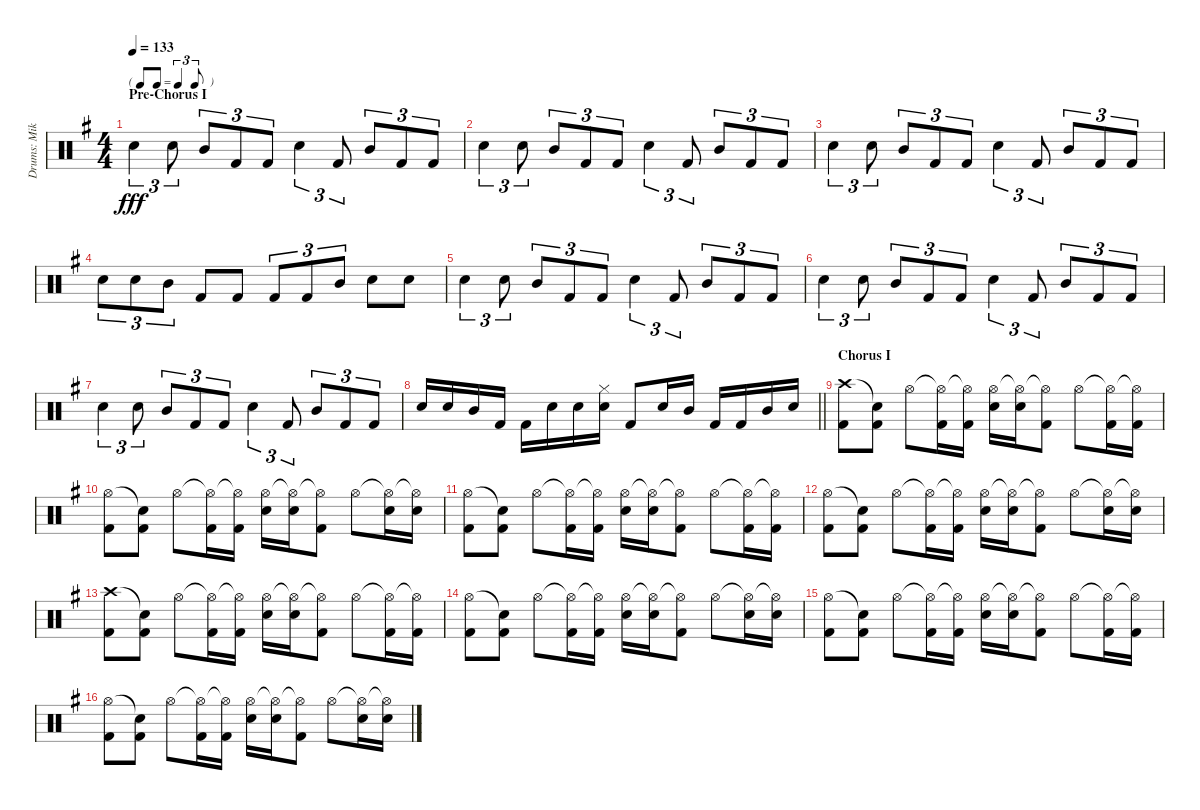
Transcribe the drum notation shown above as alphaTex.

\track ("Drums: Mike" "Drums: Mik") {instrument percussion}
\staff {score}
\articulation defaults
\ts (4 4)
\tf triplet8th
\section ("" "Pre-Chorus I")
\tempo 133
\clef neutral
\ks g "Electric Snare (hit)".4{tu (3 2) dy fff} "Electric Snare (hit)".8{tu (3 2)} "Mid Tom (hit)".8{tu (3 2)} "Kick (hit) 2".8{tu (3 2)} "Kick (hit) 2".8{tu (3 2)} "Electric Snare (hit)".4{tu (3 2)} "Kick (hit) 2".8{tu (3 2)} "Mid Tom (hit)".8{tu (3 2)} "Kick (hit) 2".8{tu (3 2)} "Kick (hit) 2".8{tu (3 2)}
|
"Electric Snare (hit)".4{tu (3 2)} "Electric Snare (hit)".8{tu (3 2)} "Mid Tom (hit)".8{tu (3 2)} "Kick (hit) 2".8{tu (3 2)} "Kick (hit) 2".8{tu (3 2)} "Electric Snare (hit)".4{tu (3 2)} "Kick (hit) 2".8{tu (3 2)} "Mid Tom (hit)".8{tu (3 2)} "Kick (hit) 2".8{tu (3 2)} "Kick (hit) 2".8{tu (3 2)} |
"Electric Snare (hit)".4{tu (3 2)} "Electric Snare (hit)".8{tu (3 2)} "Mid Tom (hit)".8{tu (3 2)} "Kick (hit) 2".8{tu (3 2)} "Kick (hit) 2".8{tu (3 2)} "Electric Snare (hit)".4{tu (3 2)} "Kick (hit) 2".8{tu (3 2)} "Mid Tom (hit)".8{tu (3 2)} "Kick (hit) 2".8{tu (3 2)} "Kick (hit) 2".8{tu (3 2)} |
"Electric Snare (hit)".8{tu (3 2)} "Electric Snare (hit)".8{tu (3 2)} "Mid Tom (hit)".8{tu (3 2)} "Kick (hit) 2".8 "Kick (hit) 2".8 "Kick (hit) 2".8{tu (3 2)} "Kick (hit) 2".8{tu (3 2)} "Mid Tom (hit)".8{tu (3 2)} "Electric Snare (hit)".8 "Electric Snare (hit)".8 |
"Electric Snare (hit)".4{tu (3 2)} "Electric Snare (hit)".8{tu (3 2)} "Mid Tom (hit)".8{tu (3 2)} "Kick (hit) 2".8{tu (3 2)} "Kick (hit) 2".8{tu (3 2)} "Electric Snare (hit)".4{tu (3 2)} "Kick (hit) 2".8{tu (3 2)} "Mid Tom (hit)".8{tu (3 2)} "Kick (hit) 2".8{tu (3 2)} "Kick (hit) 2".8{tu (3 2)} |
"Electric Snare (hit)".4{tu (3 2)} "Electric Snare (hit)".8{tu (3 2)} "Mid Tom (hit)".8{tu (3 2)} "Kick (hit) 2".8{tu (3 2)} "Kick (hit) 2".8{tu (3 2)} "Electric Snare (hit)".4{tu (3 2)} "Kick (hit) 2".8{tu (3 2)} "Mid Tom (hit)".8{tu (3 2)} "Kick (hit) 2".8{tu (3 2)} "Kick (hit) 2".8{tu (3 2)} |
"Electric Snare (hit)".4{tu (3 2)} "Electric Snare (hit)".8{tu (3 2)} "Mid Tom (hit)".8{tu (3 2)} "Kick (hit) 2".8{tu (3 2)} "Kick (hit) 2".8{tu (3 2)} "Electric Snare (hit)".4{tu (3 2)} "Kick (hit) 2".8{tu (3 2)} "Mid Tom (hit)".8{tu (3 2)} "Kick (hit) 2".8{tu (3 2)} "Kick (hit) 2".8{tu (3 2)} |
\barLineRight lightlight "Electric Snare (hit)".16 "Electric Snare (hit)".16 "Mid Tom (hit)".16 "Kick (hit) 2".16 "Kick (hit) 2".16 "Electric Snare (hit)".16 "Electric Snare (hit)".16
("Hi-Hat (closed)" "Electric Snare (hit)").16 "Kick (hit) 2".8 "Electric Snare (hit)".16 "Mid Tom (hit)".16 "Kick (hit) 2".16 "Kick (hit) 2".16 "Mid Tom (hit)".16 "Electric Snare (hit)".16 |
\section ("" "Chorus I")
("Crash high (hit)" "Kick (hit) 2").8 ("Snare (hit)"{t} "Kick (hit) 2").8 "Hi-Hat (open)".8 ("Hi-Hat (open)"{t} "Kick (hit) 2").16 ("Hi-Hat (open)"{t} "Kick (hit) 2").16 ("Hi-Hat (open)" "Electric Snare (hit)").16 ("Hi-Hat (open)"{t} "Electric Snare (hit)").16 ("Hi-Hat (open)"{t} "Kick (hit) 2").8 "Hi-Hat (open)".8 ("Hi-Hat (open)"{t} "Kick (hit) 2").16 ("Hi-Hat (open)"{t} "Kick (hit) 2").16 |
("Hi-Hat (open)" "Kick (hit) 2").8 ("Snare (hit)"{t} "Kick (hit) 2").8 "Hi-Hat (open)".8 ("Hi-Hat (open)"{t} "Kick (hit) 2").16 ("Hi-Hat (open)"{t} "Kick (hit) 2").16 ("Hi-Hat (open)" "Electric Snare (hit)").16 ("Hi-Hat (open)"{t} "Electric Snare (hit)").16 ("Hi-Hat (open)"{t} "Kick (hit) 2").8 "Hi-Hat (open)".8 ("Hi-Hat (open)"{t} "Electric Snare (hit)").16 ("Hi-Hat (open)"{t} "Electric Snare (hit)").16 |
("Hi-Hat (open)" "Kick (hit) 2").8 ("Snare (hit)"{t} "Kick (hit) 2").8 "Hi-Hat (open)".8 ("Hi-Hat (open)"{t} "Kick (hit) 2").16 ("Hi-Hat (open)"{t} "Kick (hit) 2").16 ("Hi-Hat (open)" "Electric Snare (hit)").16 ("Hi-Hat (open)"{t} "Electric Snare (hit)").16 ("Hi-Hat (open)"{t} "Kick (hit) 2").8 "Hi-Hat (open)".8 ("Hi-Hat (open)"{t} "Kick (hit) 2").16 ("Hi-Hat (open)"{t} "Kick (hit) 2").16 |
("Hi-Hat (open)" "Kick (hit) 2").8 ("Snare (hit)"{t} "Kick (hit) 2").8 "Hi-Hat (open)".8 ("Hi-Hat (open)"{t} "Kick (hit) 2").16 ("Hi-Hat (open)"{t} "Kick (hit) 2").16 ("Hi-Hat (open)" "Electric Snare (hit)").16 ("Hi-Hat (open)"{t} "Electric Snare (hit)").16 ("Hi-Hat (open)"{t} "Kick (hit) 2").8 "Hi-Hat (open)".8 ("Hi-Hat (open)"{t} "Electric Snare (hit)").16 ("Hi-Hat (open)"{t} "Electric Snare (hit)").16 |
("Crash high (hit)" "Kick (hit) 2").8 ("Snare (hit)"{t} "Kick (hit) 2").8 "Hi-Hat (open)".8 ("Hi-Hat (open)"{t} "Kick (hit) 2").16 ("Hi-Hat (open)"{t} "Kick (hit) 2").16 ("Hi-Hat (open)" "Electric Snare (hit)").16 ("Hi-Hat (open)"{t} "Electric Snare (hit)").16 ("Hi-Hat (open)"{t} "Kick (hit) 2").8 "Hi-Hat (open)".8 ("Hi-Hat (open)"{t} "Kick (hit) 2").16 ("Hi-Hat (open)"{t} "Kick (hit) 2").16 |
("Hi-Hat (open)" "Kick (hit) 2").8 ("Snare (hit)"{t} "Kick (hit) 2").8 "Hi-Hat (open)".8 ("Hi-Hat (open)"{t} "Kick (hit) 2").16 ("Hi-Hat (open)"{t} "Kick (hit) 2").16 ("Hi-Hat (open)" "Electric Snare (hit)").16 ("Hi-Hat (open)"{t} "Electric Snare (hit)").16 ("Hi-Hat (open)"{t} "Kick (hit) 2").8 "Hi-Hat (open)".8 ("Hi-Hat (open)"{t} "Electric Snare (hit)").16 ("Hi-Hat (open)"{t} "Electric Snare (hit)").16 |
("Hi-Hat (open)" "Kick (hit) 2").8 ("Snare (hit)"{t} "Kick (hit) 2").8 "Hi-Hat (open)".8 ("Hi-Hat (open)"{t} "Kick (hit) 2").16 ("Hi-Hat (open)"{t} "Kick (hit) 2").16 ("Hi-Hat (open)" "Electric Snare (hit)").16 ("Hi-Hat (open)"{t} "Electric Snare (hit)").16 ("Hi-Hat (open)"{t} "Kick (hit) 2").8 "Hi-Hat (open)".8 ("Hi-Hat (open)"{t} "Kick (hit) 2").16 ("Hi-Hat (open)"{t} "Kick (hit) 2").16 |
("Hi-Hat (open)" "Kick (hit) 2").8 ("Snare (hit)"{t} "Kick (hit) 2").8 "Hi-Hat (open)".8 ("Hi-Hat (open)"{t} "Kick (hit) 2").16 ("Hi-Hat (open)"{t} "Kick (hit) 2").16 ("Hi-Hat (open)" "Electric Snare (hit)").16 ("Hi-Hat (open)"{t} "Electric Snare (hit)").16 ("Hi-Hat (open)"{t} "Kick (hit) 2").8 "Hi-Hat (open)".8 ("Hi-Hat (open)"{t} "Electric Snare (hit)").16 ("Hi-Hat (open)"{t} "Electric Snare (hit)").16
